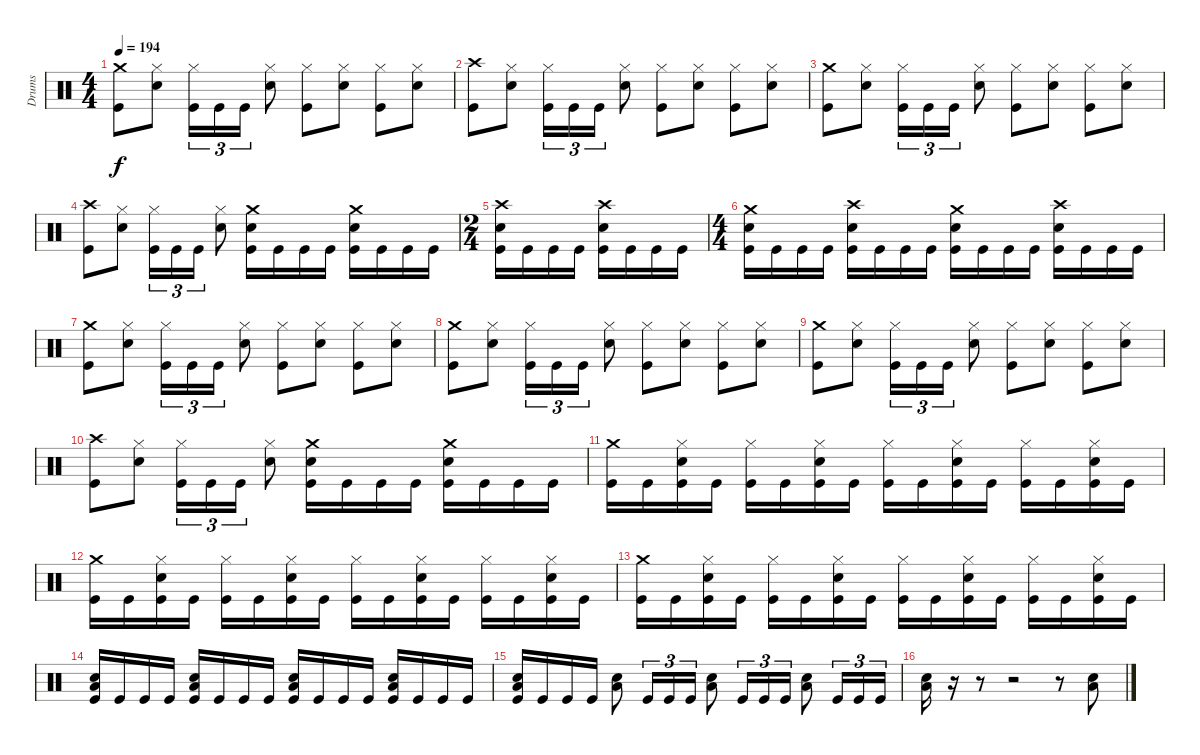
\track ("Drums" "Drums") {instrument percussion}
\staff {score}
\articulation defaults
\ts (4 4)
\tempo 194
\clef neutral
\ks c
("Crash medium (hit)" "Kick (hit)").8{dy f} ("Hi-Hat (closed)" "Snare (hit) 2").8 ("Hi-Hat (closed)" "Kick (hit)").16{tu (3 2)} "Kick (hit)".16{tu (3 2)} "Kick (hit)".16{tu (3 2)} ("Hi-Hat (closed)" "Snare (hit) 2").8 ("Hi-Hat (closed)" "Kick (hit)").8 ("Hi-Hat (closed)" "Snare (hit) 2").8 ("Hi-Hat (closed)" "Kick (hit)").8 ("Hi-Hat (closed)" "Snare (hit) 2").8 |
("Crash high (hit)" "Kick (hit)").8 ("Hi-Hat (closed)" "Snare (hit) 2").8 ("Hi-Hat (closed)" "Kick (hit)").16{tu (3 2)} "Kick (hit)".16{tu (3 2)} "Kick (hit)".16{tu (3 2)} ("Hi-Hat (closed)" "Snare (hit) 2").8 ("Hi-Hat (closed)" "Kick (hit)").8 ("Hi-Hat (closed)" "Snare (hit) 2").8 ("Hi-Hat (closed)" "Kick (hit)").8 ("Hi-Hat (closed)" "Snare (hit) 2").8 |
("Crash medium (hit)" "Kick (hit)").8 ("Hi-Hat (closed)" "Snare (hit) 2").8 ("Hi-Hat (closed)" "Kick (hit)").16{tu (3 2)} "Kick (hit)".16{tu (3 2)} "Kick (hit)".16{tu (3 2)} ("Hi-Hat (closed)" "Snare (hit) 2").8 ("Hi-Hat (closed)" "Kick (hit)").8 ("Hi-Hat (closed)" "Snare (hit) 2").8 ("Hi-Hat (closed)" "Kick (hit)").8 ("Hi-Hat (closed)" "Snare (hit) 2").8 |
("Crash high (hit)" "Kick (hit)").8 ("Hi-Hat (closed)" "Snare (hit) 2").8 ("Hi-Hat (closed)" "Kick (hit)").16{tu (3 2)} "Kick (hit)".16{tu (3 2)} "Kick (hit)".16{tu (3 2)} ("Hi-Hat (closed)" "Snare (hit) 2").8 ("Crash medium (hit)" "Snare (hit) 2" "Kick (hit)").16 "Kick (hit)".16 "Kick (hit)".16 "Kick (hit)".16 ("Crash medium (hit)" "Snare (hit) 2" "Kick (hit)").16 "Kick (hit)".16 "Kick (hit)".16 "Kick (hit)".16 |
\ts (2 4)
("Crash high (hit)" "Snare (hit) 2" "Kick (hit)").16 "Kick (hit)".16 "Kick (hit)".16 "Kick (hit)".16 ("Crash high (hit)" "Snare (hit) 2" "Kick (hit)").16 "Kick (hit)".16 "Kick (hit)".16 "Kick (hit)".16 |
\ts (4 4)
("Crash medium (hit)" "Snare (hit) 2" "Kick (hit)").16 "Kick (hit)".16 "Kick (hit)".16 "Kick (hit)".16 ("Crash high (hit)" "Snare (hit) 2" "Kick (hit)").16 "Kick (hit)".16 "Kick (hit)".16 "Kick (hit)".16 ("Crash medium (hit)" "Snare (hit) 2" "Kick (hit)").16 "Kick (hit)".16 "Kick (hit)".16 "Kick (hit)".16 ("Crash high (hit)" "Snare (hit) 2" "Kick (hit)").16 "Kick (hit)".16 "Kick (hit)".16 "Kick (hit)".16 |
("Crash medium (hit)" "Kick (hit)").8 ("Hi-Hat (closed)" "Snare (hit) 2").8 ("Hi-Hat (closed)" "Kick (hit)").16{tu (3 2)} "Kick (hit)".16{tu (3 2)} "Kick (hit)".16{tu (3 2)} ("Hi-Hat (closed)" "Snare (hit) 2").8 ("Hi-Hat (closed)" "Kick (hit)").8 ("Hi-Hat (closed)" "Snare (hit) 2").8 ("Hi-Hat (closed)" "Kick (hit)").8 ("Hi-Hat (closed)" "Snare (hit) 2").8 |
("Crash medium (hit)" "Kick (hit)").8 ("Hi-Hat (closed)" "Snare (hit) 2").8 ("Hi-Hat (closed)" "Kick (hit)").16{tu (3 2)} "Kick (hit)".16{tu (3 2)} "Kick (hit)".16{tu (3 2)} ("Hi-Hat (closed)" "Snare (hit) 2").8 ("Hi-Hat (closed)" "Kick (hit)").8 ("Hi-Hat (closed)" "Snare (hit) 2").8 ("Hi-Hat (closed)" "Kick (hit)").8 ("Hi-Hat (closed)" "Snare (hit) 2").8 |
("Crash medium (hit)" "Kick (hit)").8 ("Hi-Hat (closed)" "Snare (hit) 2").8 ("Hi-Hat (closed)" "Kick (hit)").16{tu (3 2)} "Kick (hit)".16{tu (3 2)} "Kick (hit)".16{tu (3 2)} ("Hi-Hat (closed)" "Snare (hit) 2").8 ("Hi-Hat (closed)" "Kick (hit)").8 ("Hi-Hat (closed)" "Snare (hit) 2").8 ("Hi-Hat (closed)" "Kick (hit)").8 ("Hi-Hat (closed)" "Snare (hit) 2").8 |
("Crash high (hit)" "Kick (hit)").8 ("Hi-Hat (closed)" "Snare (hit) 2").8 ("Hi-Hat (closed)" "Kick (hit)").16{tu (3 2)} "Kick (hit)".16{tu (3 2)} "Kick (hit)".16{tu (3 2)} ("Hi-Hat (closed)" "Snare (hit) 2").8 ("Crash medium (hit)" "Snare (hit) 2" "Kick (hit)").16 "Kick (hit)".16 "Kick (hit)".16 "Kick (hit)".16 ("Crash medium (hit)" "Snare (hit) 2" "Kick (hit)").16 "Kick (hit)".16 "Kick (hit)".16 "Kick (hit)".16 |
("Crash medium (hit)" "Kick (hit)").16 "Kick (hit)".16 ("Hi-Hat (closed)" "Snare (hit) 2" "Kick (hit)").16 "Kick (hit)".16 ("Hi-Hat (closed)" "Kick (hit)").16 "Kick (hit)".16 ("Hi-Hat (closed)" "Snare (hit) 2" "Kick (hit)").16 "Kick (hit)".16 ("Hi-Hat (closed)" "Kick (hit)").16 "Kick (hit)".16 ("Hi-Hat (closed)" "Snare (hit) 2" "Kick (hit)").16 "Kick (hit)".16 ("Hi-Hat (closed)" "Kick (hit)").16 "Kick (hit)".16 ("Hi-Hat (closed)" "Snare (hit) 2" "Kick (hit)").16 "Kick (hit)".16 |
("Crash medium (hit)" "Kick (hit)").16 "Kick (hit)".16 ("Hi-Hat (closed)" "Snare (hit) 2" "Kick (hit)").16 "Kick (hit)".16 ("Hi-Hat (closed)" "Kick (hit)").16 "Kick (hit)".16 ("Hi-Hat (closed)" "Snare (hit) 2" "Kick (hit)").16 "Kick (hit)".16 ("Hi-Hat (closed)" "Kick (hit)").16 "Kick (hit)".16 ("Hi-Hat (closed)" "Snare (hit) 2" "Kick (hit)").16 "Kick (hit)".16 ("Hi-Hat (closed)" "Kick (hit)").16 "Kick (hit)".16 ("Hi-Hat (closed)" "Snare (hit) 2" "Kick (hit)").16 "Kick (hit)".16 |
("Crash medium (hit)" "Kick (hit)").16 "Kick (hit)".16 ("Hi-Hat (closed)" "Snare (hit) 2" "Kick (hit)").16 "Kick (hit)".16 ("Hi-Hat (closed)" "Kick (hit)").16 "Kick (hit)".16 ("Hi-Hat (closed)" "Snare (hit) 2" "Kick (hit)").16 "Kick (hit)".16 ("Hi-Hat (closed)" "Kick (hit)").16 "Kick (hit)".16 ("Hi-Hat (closed)" "Snare (hit) 2" "Kick (hit)").16 "Kick (hit)".16 ("Hi-Hat (closed)" "Kick (hit)").16 "Kick (hit)".16 ("Hi-Hat (closed)" "Snare (hit) 2" "Kick (hit)").16 "Kick (hit)".16 |
("Low Floor Tom (hit)" "Snare (hit) 2" "Kick (hit)").16 "Kick (hit)".16 "Kick (hit)".16 "Kick (hit)".16 ("Low Floor Tom (hit)" "Snare (hit) 2" "Kick (hit)").16 "Kick (hit)".16 "Kick (hit)".16 "Kick (hit)".16 ("Low Floor Tom (hit)" "Snare (hit) 2" "Kick (hit)").16 "Kick (hit)".16 "Kick (hit)".16 "Kick (hit)".16 ("Low Floor Tom (hit)" "Snare (hit) 2" "Kick (hit)").16 "Kick (hit)".16 "Kick (hit)".16 "Kick (hit)".16 |
("Low Floor Tom (hit)" "Snare (hit) 2" "Kick (hit)").16 "Kick (hit)".16 "Kick (hit)".16 "Kick (hit)".16 ("Low Floor Tom (hit)" "Snare (hit) 2").8 "Kick (hit)".16{tu (3 2)} "Kick (hit)".16{tu (3 2)} "Kick (hit)".16{tu (3 2)} ("Low Floor Tom (hit)" "Snare (hit) 2").8 "Kick (hit)".16{tu (3 2)} "Kick (hit)".16{tu (3 2)} "Kick (hit)".16{tu (3 2)} ("Low Floor Tom (hit)" "Snare (hit) 2").8 "Kick (hit)".16{tu (3 2)} "Kick (hit)".16{tu (3 2)} "Kick (hit)".16{tu (3 2)} |
("Low Floor Tom (hit)" "Snare (hit) 2").16 r.16 r.8 r.2 r.8 ("Low Floor Tom (hit)" "Snare (hit) 2").8
